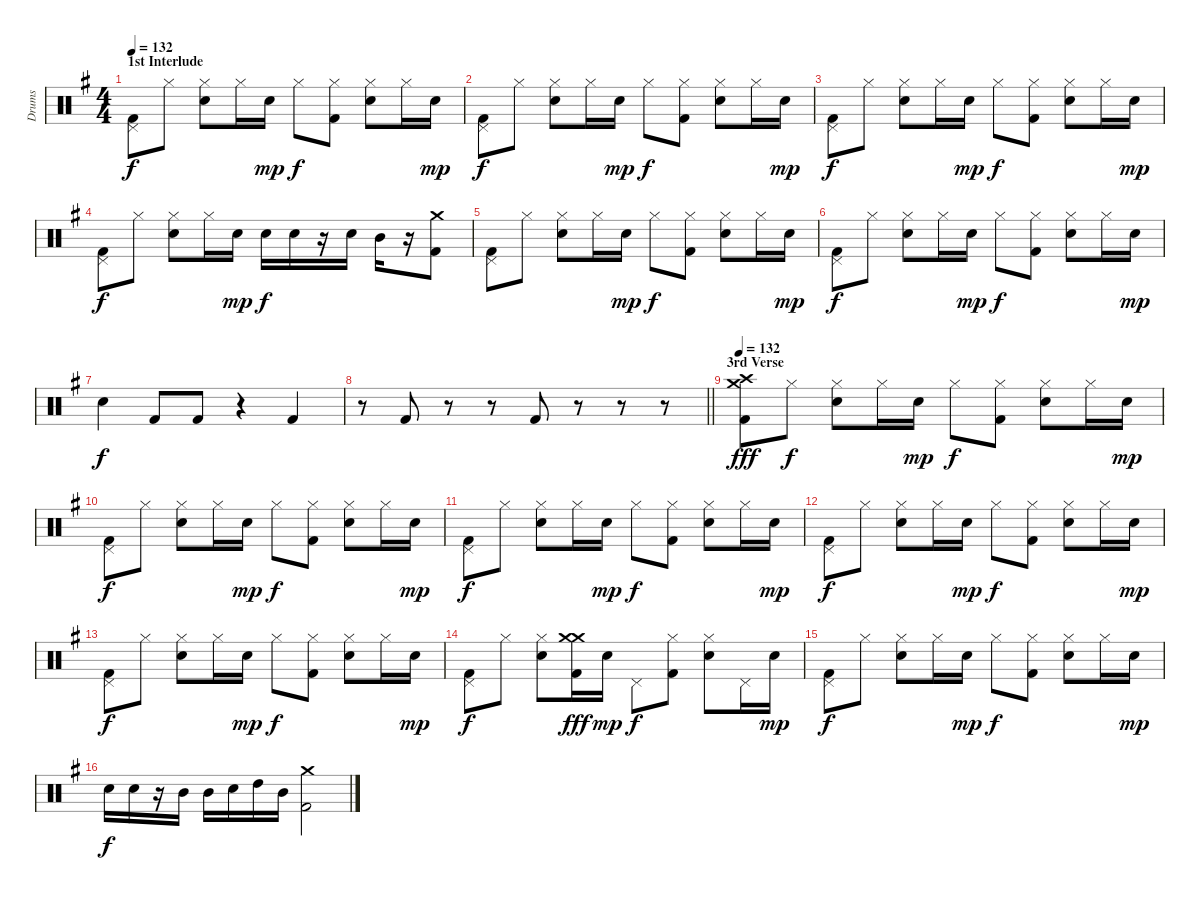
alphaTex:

\track ("Drums" "Drums") {instrument percussion}
\staff {score}
\articulation defaults
\ts (4 4)
\section ("" "1st Interlude")
\tempo 132
\clef neutral
\ks g
("Kick (hit) 2" "Pedal Hi-Hat (hit)").8{dy f} "Hi-Hat (closed)".8 ("Snare (hit) 2" "Hi-Hat (closed)").8 "Hi-Hat (closed)".16 "Snare (hit) 2".16{dy mp} "Hi-Hat (closed)".8{dy f} ("Kick (hit) 2" "Hi-Hat (closed)").8 ("Snare (hit) 2" "Hi-Hat (closed)").8 "Hi-Hat (closed)".16 "Snare (hit) 2".16{dy mp} |
("Kick (hit) 2" "Pedal Hi-Hat (hit)").8{dy f} "Hi-Hat (closed)".8 ("Snare (hit) 2" "Hi-Hat (closed)").8 "Hi-Hat (closed)".16 "Snare (hit) 2".16{dy mp} "Hi-Hat (closed)".8{dy f} ("Kick (hit) 2" "Hi-Hat (closed)").8 ("Snare (hit) 2" "Hi-Hat (closed)").8 "Hi-Hat (closed)".16 "Snare (hit) 2".16{dy mp} |
("Kick (hit) 2" "Pedal Hi-Hat (hit)").8{dy f} "Hi-Hat (closed)".8 ("Snare (hit) 2" "Hi-Hat (closed)").8 "Hi-Hat (closed)".16 "Snare (hit) 2".16{dy mp} "Hi-Hat (closed)".8{dy f} ("Kick (hit) 2" "Hi-Hat (closed)").8 ("Snare (hit) 2" "Hi-Hat (closed)").8 "Hi-Hat (closed)".16 "Snare (hit) 2".16{dy mp} |
("Kick (hit) 2" "Pedal Hi-Hat (hit)").8{dy f} "Hi-Hat (closed)".8 ("Snare (hit) 2" "Hi-Hat (closed)").8 "Hi-Hat (closed)".16 "Snare (hit) 2".16{dy mp} "Snare (hit) 2".16{dy f} "Snare (hit) 2".16 r.16 "Snare (hit) 2".16 "Mid Tom (hit)".16 r.16 ("Kick (hit) 2" "Crash medium (hit)").8 |
("Kick (hit) 2" "Pedal Hi-Hat (hit)").8 "Hi-Hat (closed)".8 ("Snare (hit) 2" "Hi-Hat (closed)").8 "Hi-Hat (closed)".16 "Snare (hit) 2".16{dy mp} "Hi-Hat (closed)".8{dy f} ("Kick (hit) 2" "Hi-Hat (closed)").8 ("Snare (hit) 2" "Hi-Hat (closed)").8 "Hi-Hat (closed)".16 "Snare (hit) 2".16{dy mp} |
("Kick (hit) 2" "Pedal Hi-Hat (hit)").8{dy f} "Hi-Hat (closed)".8 ("Snare (hit) 2" "Hi-Hat (closed)").8 "Hi-Hat (closed)".16 "Snare (hit) 2".16{dy mp} "Hi-Hat (closed)".8{dy f} ("Kick (hit) 2" "Hi-Hat (closed)").8 ("Snare (hit) 2" "Hi-Hat (closed)").8 "Hi-Hat (closed)".16 "Snare (hit) 2".16{dy mp} |
"Snare (hit) 2".4{dy f} "Kick (hit) 2".8 "Kick (hit) 2".8 r.4 "Kick (hit) 2".4 |
\barLineRight lightlight
r.8 "Kick (hit) 2".8 r.8 r.8 "Kick (hit) 2".8 r.8 r.8 r.8 |
\section ("" "3rd Verse")
\tempo 132
("Kick (hit) 2" "Crash high (hit)" "Crash medium (hit)").8{dy fff} "Hi-Hat (closed)".8{dy f} ("Snare (hit) 2" "Hi-Hat (closed)").8 "Hi-Hat (closed)".16 "Snare (hit) 2".16{dy mp} "Hi-Hat (closed)".8{dy f} ("Kick (hit) 2" "Hi-Hat (closed)").8 ("Snare (hit) 2" "Hi-Hat (closed)").8 "Hi-Hat (closed)".16 "Snare (hit) 2".16{dy mp} |
("Kick (hit) 2" "Pedal Hi-Hat (hit)").8{dy f} "Hi-Hat (closed)".8 ("Snare (hit) 2" "Hi-Hat (closed)").8 "Hi-Hat (closed)".16 "Snare (hit) 2".16{dy mp} "Hi-Hat (closed)".8{dy f} ("Kick (hit) 2" "Hi-Hat (closed)").8 ("Snare (hit) 2" "Hi-Hat (closed)").8 "Hi-Hat (closed)".16 "Snare (hit) 2".16{dy mp} |
("Kick (hit) 2" "Pedal Hi-Hat (hit)").8{dy f} "Hi-Hat (closed)".8 ("Snare (hit) 2" "Hi-Hat (closed)").8 "Hi-Hat (closed)".16 "Snare (hit) 2".16{dy mp} "Hi-Hat (closed)".8{dy f} ("Kick (hit) 2" "Hi-Hat (closed)").8 ("Snare (hit) 2" "Hi-Hat (closed)").8 "Hi-Hat (closed)".16 "Snare (hit) 2".16{dy mp} |
("Kick (hit) 2" "Pedal Hi-Hat (hit)").8{dy f} "Hi-Hat (closed)".8 ("Snare (hit) 2" "Hi-Hat (closed)").8 "Hi-Hat (closed)".16 "Snare (hit) 2".16{dy mp} "Hi-Hat (closed)".8{dy f} ("Kick (hit) 2" "Hi-Hat (closed)").8 ("Snare (hit) 2" "Hi-Hat (closed)").8 "Hi-Hat (closed)".16 "Snare (hit) 2".16{dy mp} |
("Kick (hit) 2" "Pedal Hi-Hat (hit)").8{dy f} "Hi-Hat (closed)".8 ("Snare (hit) 2" "Hi-Hat (closed)").8 "Hi-Hat (closed)".16 "Snare (hit) 2".16{dy mp} "Hi-Hat (closed)".8{dy f} ("Kick (hit) 2" "Hi-Hat (closed)").8 ("Snare (hit) 2" "Hi-Hat (closed)").8 "Hi-Hat (closed)".16 "Snare (hit) 2".16{dy mp} |
("Kick (hit) 2" "Pedal Hi-Hat (hit)").8{dy f} "Hi-Hat (closed)".8 ("Snare (hit) 2" "Hi-Hat (closed)").8 ("Kick (hit) 2" "Crash medium (hit)" "Crash medium (hit)").16{dy fff} "Snare (hit) 2".16{dy mp} "Pedal Hi-Hat (hit)".8{dy f} ("Kick (hit) 2" "Hi-Hat (closed)").8 ("Snare (hit) 2" "Hi-Hat (closed)").8 "Pedal Hi-Hat (hit)".16 "Snare (hit) 2".16{dy mp} |
("Kick (hit) 2" "Pedal Hi-Hat (hit)").8{dy f} "Hi-Hat (closed)".8 ("Snare (hit) 2" "Hi-Hat (closed)").8 "Hi-Hat (closed)".16 "Snare (hit) 2".16{dy mp} "Hi-Hat (closed)".8{dy f} ("Kick (hit) 2" "Hi-Hat (closed)").8 ("Snare (hit) 2" "Hi-Hat (closed)").8 "Hi-Hat (closed)".16 "Snare (hit) 2".16{dy mp} |
"Snare (hit) 2".16{dy f} "Snare (hit) 2".16 r.16 "Mid Tom (hit)".16 "Mid Tom (hit)".16 "Snare (hit) 2".16 "High Tom (hit)".16 "Mid Tom (hit)".16 ("Kick (hit) 2" "Crash medium (hit)").2
